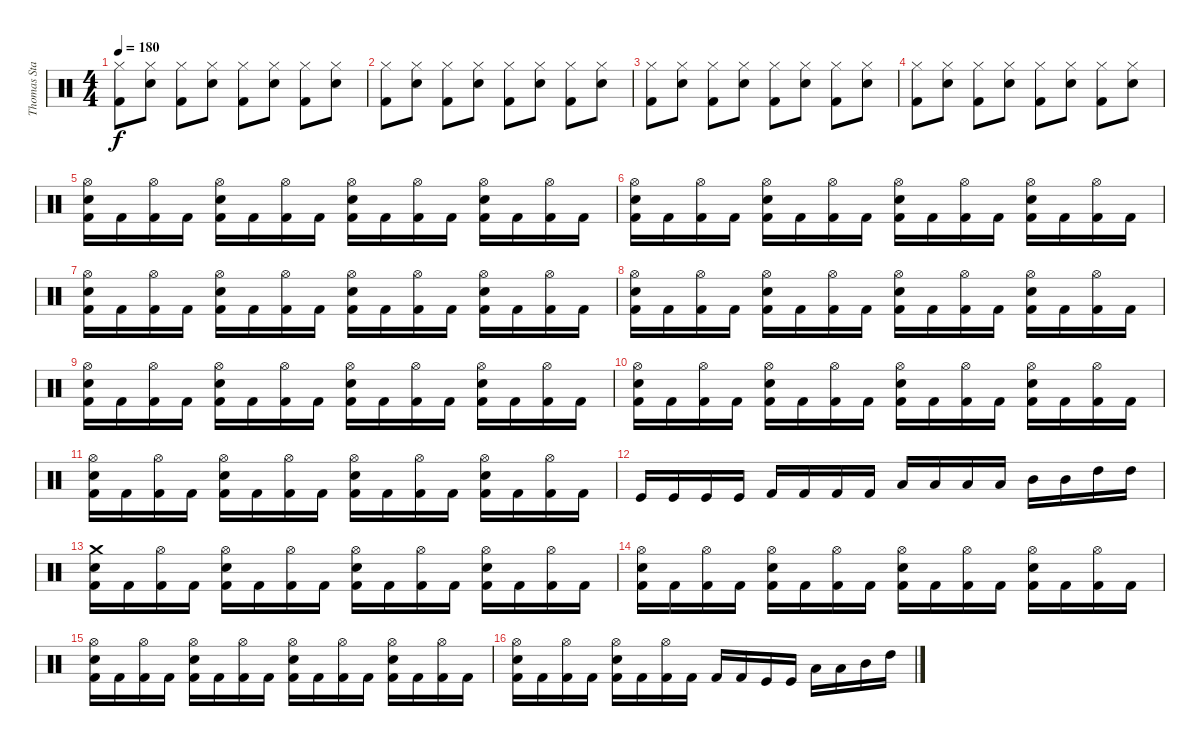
\track ("Thomas Stauch" "Thomas Sta") {instrument percussion}
\staff {score}
\articulation defaults
\ts (4 4)
\tempo 180
\clef neutral
\ks c
("Kick (hit) 2" "Hi-Hat (closed)").8{dy f} ("Snare (hit) 2" "Hi-Hat (closed)").8 ("Kick (hit) 2" "Hi-Hat (closed)").8 ("Snare (hit) 2" "Hi-Hat (closed)").8 ("Kick (hit) 2" "Hi-Hat (closed)").8 ("Snare (hit) 2" "Hi-Hat (closed)").8 ("Kick (hit) 2" "Hi-Hat (closed)").8 ("Snare (hit) 2" "Hi-Hat (closed)").8 |
("Kick (hit) 2" "Hi-Hat (closed)").8 ("Snare (hit) 2" "Hi-Hat (closed)").8 ("Kick (hit) 2" "Hi-Hat (closed)").8 ("Snare (hit) 2" "Hi-Hat (closed)").8 ("Kick (hit) 2" "Hi-Hat (closed)").8 ("Snare (hit) 2" "Hi-Hat (closed)").8 ("Kick (hit) 2" "Hi-Hat (closed)").8 ("Snare (hit) 2" "Hi-Hat (closed)").8 |
("Kick (hit) 2" "Hi-Hat (closed)").8 ("Snare (hit) 2" "Hi-Hat (closed)").8 ("Kick (hit) 2" "Hi-Hat (closed)").8 ("Snare (hit) 2" "Hi-Hat (closed)").8 ("Kick (hit) 2" "Hi-Hat (closed)").8 ("Snare (hit) 2" "Hi-Hat (closed)").8 ("Kick (hit) 2" "Hi-Hat (closed)").8 ("Snare (hit) 2" "Hi-Hat (closed)").8 |
("Kick (hit) 2" "Hi-Hat (closed)").8 ("Snare (hit) 2" "Hi-Hat (closed)").8 ("Kick (hit) 2" "Hi-Hat (closed)").8 ("Snare (hit) 2" "Hi-Hat (closed)").8 ("Kick (hit) 2" "Hi-Hat (closed)").8 ("Snare (hit) 2" "Hi-Hat (closed)").8 ("Kick (hit) 2" "Hi-Hat (closed)").8 ("Snare (hit) 2" "Hi-Hat (closed)").8 |
("Kick (hit) 2" "Snare (hit) 2" "Hi-Hat (open)").16 "Kick (hit) 2".16 ("Kick (hit) 2" "Hi-Hat (open)").16 "Kick (hit) 2".16 ("Kick (hit) 2" "Snare (hit) 2" "Hi-Hat (open)").16 "Kick (hit) 2".16 ("Kick (hit) 2" "Hi-Hat (open)").16 "Kick (hit) 2".16 ("Kick (hit) 2" "Snare (hit) 2" "Hi-Hat (open)").16 "Kick (hit) 2".16 ("Kick (hit) 2" "Hi-Hat (open)").16 "Kick (hit) 2".16 ("Kick (hit) 2" "Snare (hit) 2" "Hi-Hat (open)").16 "Kick (hit) 2".16 ("Kick (hit) 2" "Hi-Hat (open)").16 "Kick (hit) 2".16 |
("Kick (hit) 2" "Snare (hit) 2" "Hi-Hat (open)").16 "Kick (hit) 2".16 ("Kick (hit) 2" "Hi-Hat (open)").16 "Kick (hit) 2".16 ("Kick (hit) 2" "Snare (hit) 2" "Hi-Hat (open)").16 "Kick (hit) 2".16 ("Kick (hit) 2" "Hi-Hat (open)").16 "Kick (hit) 2".16 ("Kick (hit) 2" "Snare (hit) 2" "Hi-Hat (open)").16 "Kick (hit) 2".16 ("Kick (hit) 2" "Hi-Hat (open)").16 "Kick (hit) 2".16 ("Kick (hit) 2" "Snare (hit) 2" "Hi-Hat (open)").16 "Kick (hit) 2".16 ("Kick (hit) 2" "Hi-Hat (open)").16 "Kick (hit) 2".16 |
("Kick (hit) 2" "Snare (hit) 2" "Hi-Hat (open)").16 "Kick (hit) 2".16 ("Kick (hit) 2" "Hi-Hat (open)").16 "Kick (hit) 2".16 ("Kick (hit) 2" "Snare (hit) 2" "Hi-Hat (open)").16 "Kick (hit) 2".16 ("Kick (hit) 2" "Hi-Hat (open)").16 "Kick (hit) 2".16 ("Kick (hit) 2" "Snare (hit) 2" "Hi-Hat (open)").16 "Kick (hit) 2".16 ("Kick (hit) 2" "Hi-Hat (open)").16 "Kick (hit) 2".16 ("Kick (hit) 2" "Snare (hit) 2" "Hi-Hat (open)").16 "Kick (hit) 2".16 ("Kick (hit) 2" "Hi-Hat (open)").16 "Kick (hit) 2".16 |
("Kick (hit) 2" "Snare (hit) 2" "Hi-Hat (open)").16 "Kick (hit) 2".16 ("Kick (hit) 2" "Hi-Hat (open)").16 "Kick (hit) 2".16 ("Kick (hit) 2" "Snare (hit) 2" "Hi-Hat (open)").16 "Kick (hit) 2".16 ("Kick (hit) 2" "Hi-Hat (open)").16 "Kick (hit) 2".16 ("Kick (hit) 2" "Snare (hit) 2" "Hi-Hat (open)").16 "Kick (hit) 2".16 ("Kick (hit) 2" "Hi-Hat (open)").16 "Kick (hit) 2".16 ("Kick (hit) 2" "Snare (hit) 2" "Hi-Hat (open)").16 "Kick (hit) 2".16 ("Kick (hit) 2" "Hi-Hat (open)").16 "Kick (hit) 2".16 |
("Kick (hit) 2" "Snare (hit) 2" "Hi-Hat (open)").16 "Kick (hit) 2".16 ("Kick (hit) 2" "Hi-Hat (open)").16 "Kick (hit) 2".16 ("Kick (hit) 2" "Snare (hit) 2" "Hi-Hat (open)").16 "Kick (hit) 2".16 ("Kick (hit) 2" "Hi-Hat (open)").16 "Kick (hit) 2".16 ("Kick (hit) 2" "Snare (hit) 2" "Hi-Hat (open)").16 "Kick (hit) 2".16 ("Kick (hit) 2" "Hi-Hat (open)").16 "Kick (hit) 2".16 ("Kick (hit) 2" "Snare (hit) 2" "Hi-Hat (open)").16 "Kick (hit) 2".16 ("Kick (hit) 2" "Hi-Hat (open)").16 "Kick (hit) 2".16 |
("Kick (hit) 2" "Snare (hit) 2" "Hi-Hat (open)").16 "Kick (hit) 2".16 ("Kick (hit) 2" "Hi-Hat (open)").16 "Kick (hit) 2".16 ("Kick (hit) 2" "Snare (hit) 2" "Hi-Hat (open)").16 "Kick (hit) 2".16 ("Kick (hit) 2" "Hi-Hat (open)").16 "Kick (hit) 2".16 ("Kick (hit) 2" "Snare (hit) 2" "Hi-Hat (open)").16 "Kick (hit) 2".16 ("Kick (hit) 2" "Hi-Hat (open)").16 "Kick (hit) 2".16 ("Kick (hit) 2" "Snare (hit) 2" "Hi-Hat (open)").16 "Kick (hit) 2".16 ("Kick (hit) 2" "Hi-Hat (open)").16 "Kick (hit) 2".16 |
("Kick (hit) 2" "Snare (hit) 2" "Hi-Hat (open)").16 "Kick (hit) 2".16 ("Kick (hit) 2" "Hi-Hat (open)").16 "Kick (hit) 2".16 ("Kick (hit) 2" "Snare (hit) 2" "Hi-Hat (open)").16 "Kick (hit) 2".16 ("Kick (hit) 2" "Hi-Hat (open)").16 "Kick (hit) 2".16 ("Kick (hit) 2" "Snare (hit) 2" "Hi-Hat (open)").16 "Kick (hit) 2".16 ("Kick (hit) 2" "Hi-Hat (open)").16 "Kick (hit) 2".16 ("Kick (hit) 2" "Snare (hit) 2" "Hi-Hat (open)").16 "Kick (hit) 2".16 ("Kick (hit) 2" "Hi-Hat (open)").16 "Kick (hit) 2".16 |
"Kick (hit)".16 "Kick (hit)".16 "Kick (hit)".16 "Kick (hit)".16 "Kick (hit) 2".16 "Kick (hit) 2".16 "Kick (hit) 2".16 "Kick (hit) 2".16 "Low Tom (hit)".16 "Low Tom (hit)".16 "Low Tom (hit)".16 "Low Tom (hit)".16 "Mid Tom (hit)".16 "Mid Tom (hit)".16 "High Tom (hit)".16 "High Tom (hit)".16 |
("Kick (hit) 2" "Snare (hit) 2" "Crash medium (hit)").16 "Kick (hit) 2".16 ("Kick (hit) 2" "Hi-Hat (open)").16 "Kick (hit) 2".16 ("Kick (hit) 2" "Snare (hit) 2" "Hi-Hat (open)").16 "Kick (hit) 2".16 ("Kick (hit) 2" "Hi-Hat (open)").16 "Kick (hit) 2".16 ("Kick (hit) 2" "Snare (hit) 2" "Hi-Hat (open)").16 "Kick (hit) 2".16 ("Kick (hit) 2" "Hi-Hat (open)").16 "Kick (hit) 2".16 ("Kick (hit) 2" "Snare (hit) 2" "Hi-Hat (open)").16 "Kick (hit) 2".16 ("Kick (hit) 2" "Hi-Hat (open)").16 "Kick (hit) 2".16 |
("Kick (hit) 2" "Snare (hit) 2" "Hi-Hat (open)").16 "Kick (hit) 2".16 ("Kick (hit) 2" "Hi-Hat (open)").16 "Kick (hit) 2".16 ("Kick (hit) 2" "Snare (hit) 2" "Hi-Hat (open)").16 "Kick (hit) 2".16 ("Kick (hit) 2" "Hi-Hat (open)").16 "Kick (hit) 2".16 ("Kick (hit) 2" "Snare (hit) 2" "Hi-Hat (open)").16 "Kick (hit) 2".16 ("Kick (hit) 2" "Hi-Hat (open)").16 "Kick (hit) 2".16 ("Kick (hit) 2" "Snare (hit) 2" "Hi-Hat (open)").16 "Kick (hit) 2".16 ("Kick (hit) 2" "Hi-Hat (open)").16 "Kick (hit) 2".16 |
("Kick (hit) 2" "Snare (hit) 2" "Hi-Hat (open)").16 "Kick (hit) 2".16 ("Kick (hit) 2" "Hi-Hat (open)").16 "Kick (hit) 2".16 ("Kick (hit) 2" "Snare (hit) 2" "Hi-Hat (open)").16 "Kick (hit) 2".16 ("Kick (hit) 2" "Hi-Hat (open)").16 "Kick (hit) 2".16 ("Kick (hit) 2" "Snare (hit) 2" "Hi-Hat (open)").16 "Kick (hit) 2".16 ("Kick (hit) 2" "Hi-Hat (open)").16 "Kick (hit) 2".16 ("Kick (hit) 2" "Snare (hit) 2" "Hi-Hat (open)").16 "Kick (hit) 2".16 ("Kick (hit) 2" "Hi-Hat (open)").16 "Kick (hit) 2".16 |
("Kick (hit) 2" "Snare (hit) 2" "Hi-Hat (open)").16 "Kick (hit) 2".16 ("Kick (hit) 2" "Hi-Hat (open)").16 "Kick (hit) 2".16 ("Kick (hit) 2" "Snare (hit) 2" "Hi-Hat (open)").16 "Kick (hit) 2".16 ("Kick (hit) 2" "Hi-Hat (open)").16 "Kick (hit) 2".16 "Kick (hit) 2".16 "Kick (hit) 2".16 "Kick (hit)".16 "Kick (hit)".16 "Low Floor Tom (hit)".16 "Low Tom (hit)".16 "Mid Tom (hit)".16 "High Tom (hit)".16
